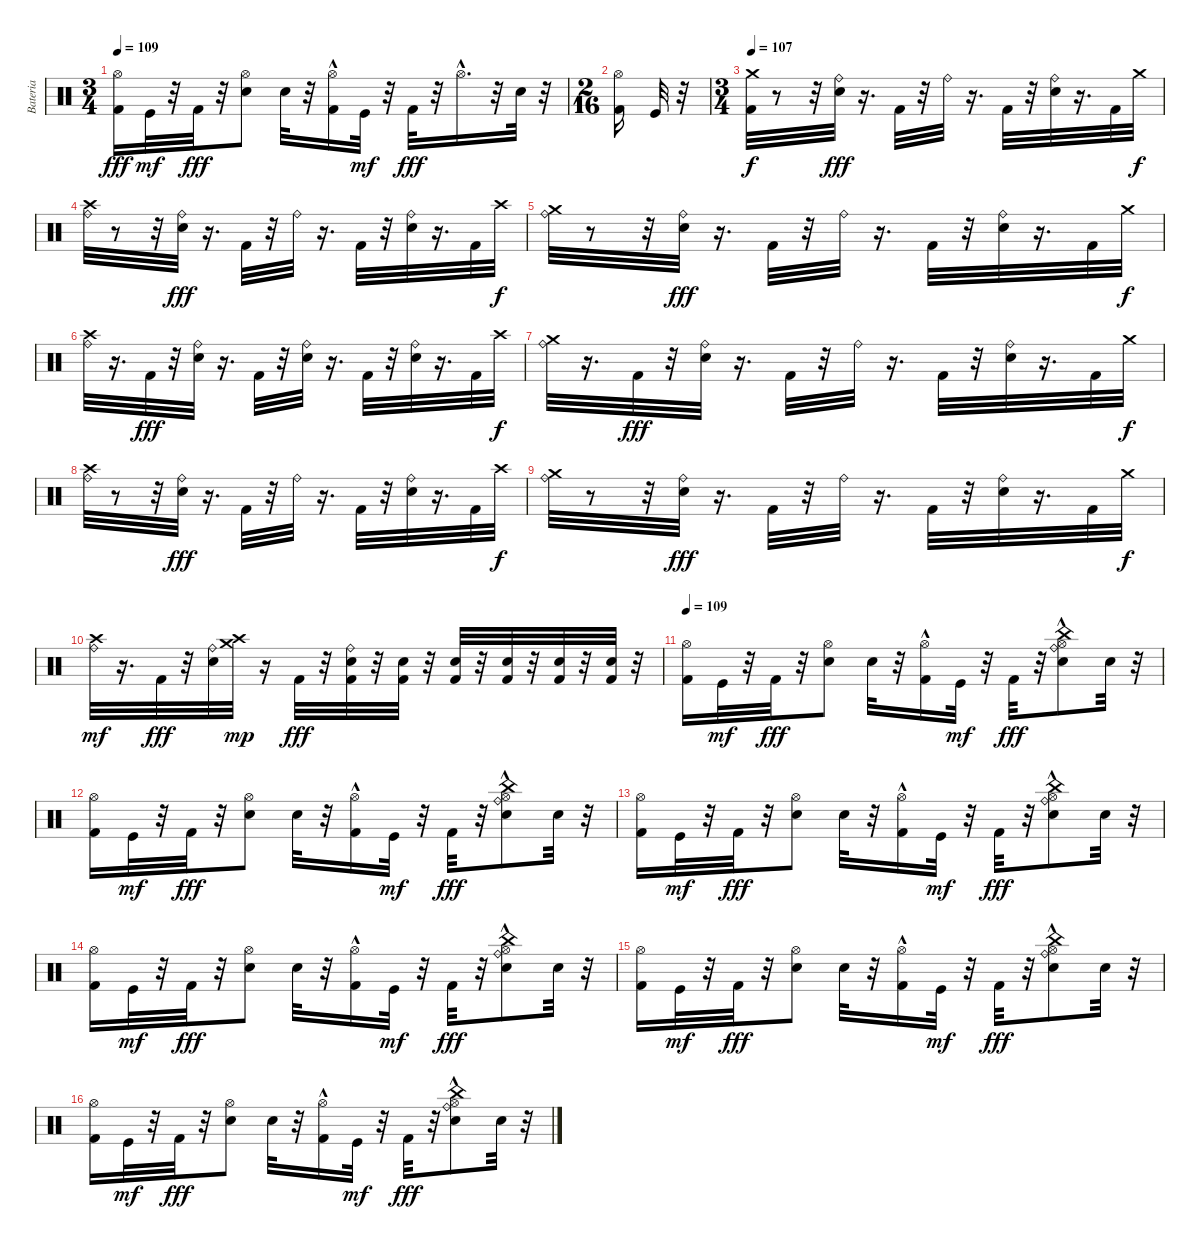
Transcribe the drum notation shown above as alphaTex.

\track ("Bateria" "Bateria") {instrument percussion}
\staff {score}
\articulation defaults
\ts (3 4)
\tempo 109
\clef neutral
\ks c
("Kick (hit) 2" "Hi-Hat (open)").16{dy fff} "Kick (hit)".32{dy mf} r.32 "Kick (hit) 2".32{dy fff} r.32 ("Electric Snare (hit)" "Hi-Hat (open)").8 "Electric Snare (hit)".32 r.32 ("Kick (hit) 2" "Hi-Hat (open)"{hac}).16 "Kick (hit)".32{dy mf} r.32 "Kick (hit) 2".32{dy fff} r.32 "Hi-Hat (open)"{hac}.16{d} r.32 "Electric Snare (hit)".32 r.32 |
\ts (2 16)
("Hi-Hat (open)" "Kick (hit) 2").16 "Kick (hit)".32 r.32 |
\ts (3 4)
\tempo 107
("Kick (hit) 2" "Crash medium (hit)").32{dy f} r.8 r.32 ("Ride (bell)" "Electric Snare (hit)").32{dy fff} r.16{d} "Kick (hit) 2".32 r.32 "Ride (bell)".32 r.16{d} "Kick (hit) 2".32 r.32 ("Ride (bell)" "Electric Snare (hit)").32 r.16{d} "Kick (hit) 2".32 "Crash medium (hit)".32{dy f} |
("Crash high (hit)" "Ride (bell)").32 r.8 r.32 ("Ride (bell)" "Electric Snare (hit)").32{dy fff} r.16{d} "Kick (hit) 2".32 r.32 "Ride (bell)".32 r.16{d} "Kick (hit) 2".32 r.32 ("Ride (bell)" "Electric Snare (hit)").32 r.16{d} "Kick (hit) 2".32 "Crash high (hit)".32{dy f} |
("Crash medium (hit)" "Ride (bell)").32 r.8 r.32 ("Ride (bell)" "Electric Snare (hit)").32{dy fff} r.16{d} "Kick (hit) 2".32 r.32 "Ride (bell)".32 r.16{d} "Kick (hit) 2".32 r.32 ("Ride (bell)" "Electric Snare (hit)").32 r.16{d} "Kick (hit) 2".32 "Crash medium (hit)".32{dy f} |
("Crash high (hit)" "Ride (bell)").32 r.16{d} "Kick (hit) 2".32{dy fff} r.32 ("Electric Snare (hit)" "Ride (bell)").32 r.16{d} "Kick (hit) 2".32 r.32 ("Electric Snare (hit)" "Ride (bell)").32 r.16{d} "Kick (hit) 2".32 r.32 ("Electric Snare (hit)" "Ride (bell)").32 r.16{d} "Kick (hit) 2".32 "Crash high (hit)".32{dy f} |
("Crash medium (hit)" "Ride (bell)").32 r.16{d} "Kick (hit) 2".32{dy fff} r.32 ("Electric Snare (hit)" "Ride (bell)").32 r.16{d} "Kick (hit) 2".32 r.32 "Ride (bell)".32 r.16{d} "Kick (hit) 2".32 r.32 ("Ride (bell)" "Electric Snare (hit)").32 r.16{d} "Kick (hit) 2".32 "Crash medium (hit)".32{dy f} |
("Crash high (hit)" "Ride (bell)").32 r.8 r.32 ("Ride (bell)" "Electric Snare (hit)").32{dy fff} r.16{d} "Kick (hit) 2".32 r.32 "Ride (bell)".32 r.16{d} "Kick (hit) 2".32 r.32 ("Ride (bell)" "Electric Snare (hit)").32 r.16{d} "Kick (hit) 2".32 "Crash high (hit)".32{dy f} |
("Crash medium (hit)" "Ride (bell)").32 r.8 r.32 ("Ride (bell)" "Electric Snare (hit)").32{dy fff} r.16{d} "Kick (hit) 2".32 r.32 "Ride (bell)".32 r.16{d} "Kick (hit) 2".32 r.32 ("Ride (bell)" "Electric Snare (hit)").32 r.16{d} "Kick (hit) 2".32 "Crash medium (hit)".32{dy f} |
("Crash high (hit)" "Ride (bell)").32{dy mf} r.16{d} "Kick (hit) 2".32{dy fff} r.32 ("Electric Snare (hit)" "Ride (bell)").32 ("Crash high (hit)" "Crash medium (hit)").32{dy mp} r.16 "Kick (hit) 2".32{dy fff} r.32 ("Kick (hit) 2" "Electric Snare (hit)" "Ride (bell)").32 r.32 ("Kick (hit) 2" "Electric Snare (hit)").32 r.32 ("Kick (hit) 2" "Electric Snare (hit)").32 r.32 ("Kick (hit) 2" "Electric Snare (hit)").32 r.32 ("Kick (hit) 2" "Electric Snare (hit)").32 r.32 ("Kick (hit) 2" "Electric Snare (hit)").32 r.32 |
\tempo 109
("Kick (hit) 2" "Hi-Hat (open)").16 "Kick (hit)".32{dy mf} r.32 "Kick (hit) 2".32{dy fff} r.32 ("Electric Snare (hit)" "Hi-Hat (open)").8 "Electric Snare (hit)".32 r.32 ("Kick (hit) 2" "Hi-Hat (open)"{hac}).16 "Kick (hit)".32{dy mf} r.32 "Kick (hit) 2".32{dy fff} r.32 ("Ride (bell)" "Electric Snare (hit)" "Hi-Hat (open)"{hac} "China (hit)").8 "Electric Snare (hit)".32 r.32 |
("Kick (hit) 2" "Hi-Hat (open)").16 "Kick (hit)".32{dy mf} r.32 "Kick (hit) 2".32{dy fff} r.32 ("Electric Snare (hit)" "Hi-Hat (open)").8 "Electric Snare (hit)".32 r.32 ("Kick (hit) 2" "Hi-Hat (open)"{hac}).16 "Kick (hit)".32{dy mf} r.32 "Kick (hit) 2".32{dy fff} r.32 ("Ride (bell)" "Electric Snare (hit)" "Hi-Hat (open)"{hac} "China (hit)").8 "Electric Snare (hit)".32 r.32 |
("Kick (hit) 2" "Hi-Hat (open)").16 "Kick (hit)".32{dy mf} r.32 "Kick (hit) 2".32{dy fff} r.32 ("Electric Snare (hit)" "Hi-Hat (open)").8 "Electric Snare (hit)".32 r.32 ("Kick (hit) 2" "Hi-Hat (open)"{hac}).16 "Kick (hit)".32{dy mf} r.32 "Kick (hit) 2".32{dy fff} r.32 ("Ride (bell)" "Electric Snare (hit)" "Hi-Hat (open)"{hac} "China (hit)").8 "Electric Snare (hit)".32 r.32 |
("Kick (hit) 2" "Hi-Hat (open)").16 "Kick (hit)".32{dy mf} r.32 "Kick (hit) 2".32{dy fff} r.32 ("Electric Snare (hit)" "Hi-Hat (open)").8 "Electric Snare (hit)".32 r.32 ("Kick (hit) 2" "Hi-Hat (open)"{hac}).16 "Kick (hit)".32{dy mf} r.32 "Kick (hit) 2".32{dy fff} r.32 ("Ride (bell)" "Electric Snare (hit)" "Hi-Hat (open)"{hac} "China (hit)").8 "Electric Snare (hit)".32 r.32 |
("Kick (hit) 2" "Hi-Hat (open)").16 "Kick (hit)".32{dy mf} r.32 "Kick (hit) 2".32{dy fff} r.32 ("Electric Snare (hit)" "Hi-Hat (open)").8 "Electric Snare (hit)".32 r.32 ("Kick (hit) 2" "Hi-Hat (open)"{hac}).16 "Kick (hit)".32{dy mf} r.32 "Kick (hit) 2".32{dy fff} r.32 ("Ride (bell)" "Electric Snare (hit)" "Hi-Hat (open)"{hac} "China (hit)").8 "Electric Snare (hit)".32 r.32 |
("Kick (hit) 2" "Hi-Hat (open)").16 "Kick (hit)".32{dy mf} r.32 "Kick (hit) 2".32{dy fff} r.32 ("Electric Snare (hit)" "Hi-Hat (open)").8 "Electric Snare (hit)".32 r.32 ("Kick (hit) 2" "Hi-Hat (open)"{hac}).16 "Kick (hit)".32{dy mf} r.32 "Kick (hit) 2".32{dy fff} r.32 ("Ride (bell)" "Electric Snare (hit)" "Hi-Hat (open)"{hac} "China (hit)").8 "Electric Snare (hit)".32 r.32
